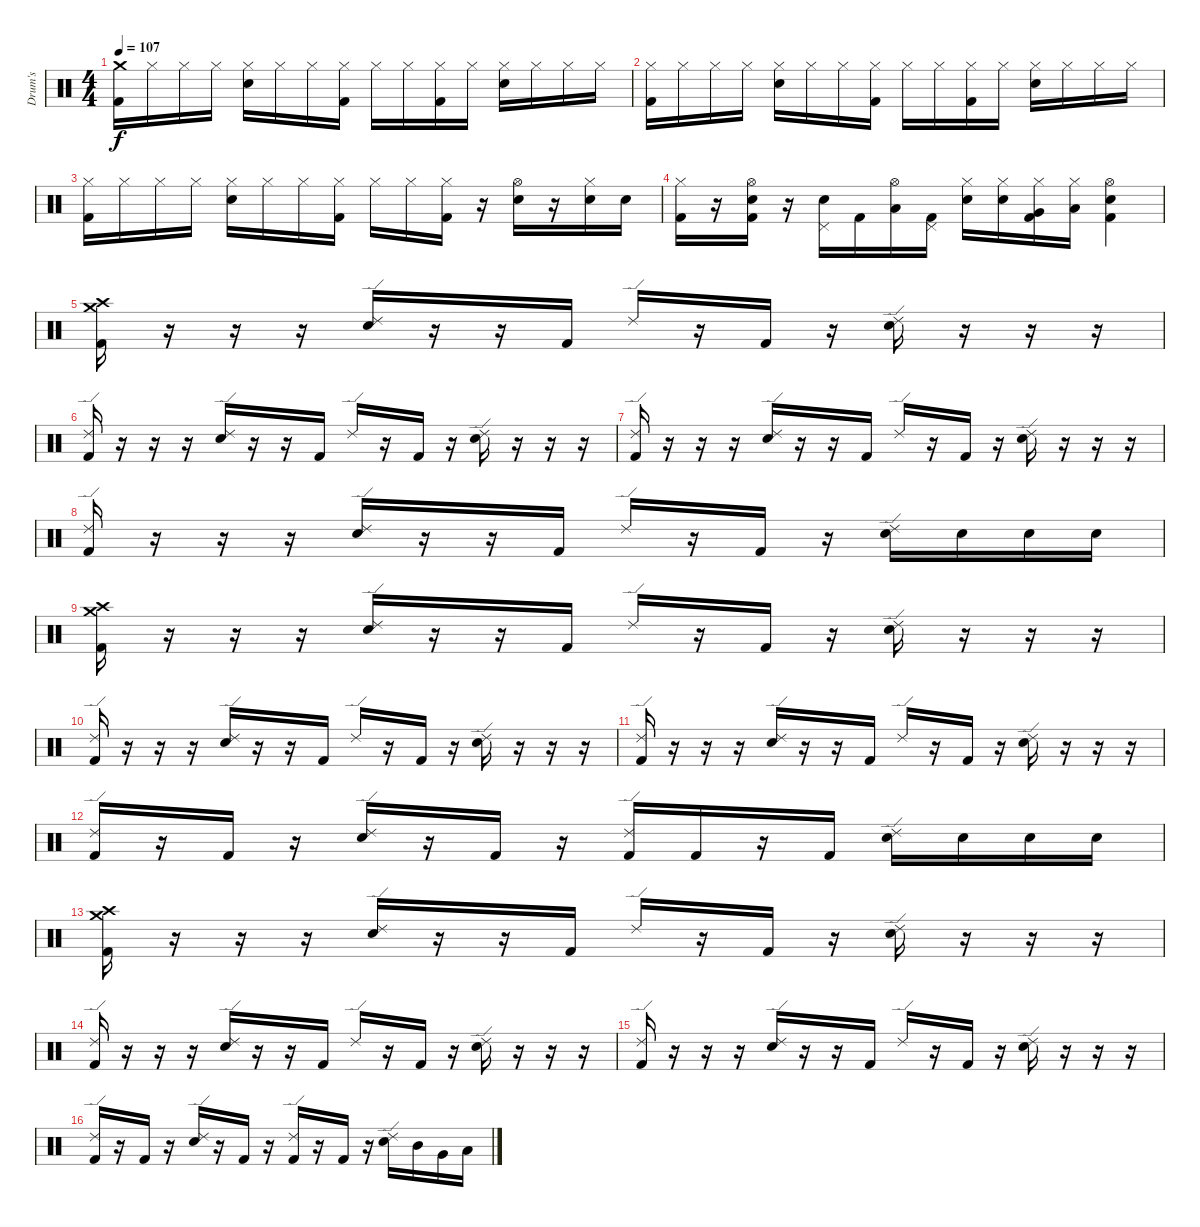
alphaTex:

\track ("Drum's" "Drum's") {instrument percussion}
\staff {score}
\articulation defaults
\ts (4 4)
\tempo 107
\clef neutral
\ks c
("Crash medium (hit)" "Kick (hit) 2").16{dy f} "Hi-Hat (closed)".16 "Hi-Hat (closed)".16 "Hi-Hat (closed)".16 ("Hi-Hat (closed)" "Snare (hit) 2").16 "Hi-Hat (closed)".16 "Hi-Hat (closed)".16 ("Hi-Hat (closed)" "Kick (hit) 2").16 "Hi-Hat (closed)".16 "Hi-Hat (closed)".16 ("Hi-Hat (closed)" "Kick (hit) 2").16 "Hi-Hat (closed)".16 ("Hi-Hat (closed)" "Snare (hit) 2").16 "Hi-Hat (closed)".16 "Hi-Hat (closed)".16 "Hi-Hat (closed)".16 |
("Hi-Hat (closed)" "Kick (hit) 2").16 "Hi-Hat (closed)".16 "Hi-Hat (closed)".16 "Hi-Hat (closed)".16 ("Hi-Hat (closed)" "Snare (hit) 2").16 "Hi-Hat (closed)".16 "Hi-Hat (closed)".16 ("Hi-Hat (closed)" "Kick (hit) 2").16 "Hi-Hat (closed)".16 "Hi-Hat (closed)".16 ("Hi-Hat (closed)" "Kick (hit) 2").16 "Hi-Hat (closed)".16 ("Hi-Hat (closed)" "Snare (hit) 2").16 "Hi-Hat (closed)".16 "Hi-Hat (closed)".16 "Hi-Hat (closed)".16 |
("Hi-Hat (closed)" "Kick (hit) 2").16 "Hi-Hat (closed)".16 "Hi-Hat (closed)".16 "Hi-Hat (closed)".16 ("Hi-Hat (closed)" "Snare (hit) 2").16 "Hi-Hat (closed)".16 "Hi-Hat (closed)".16 ("Hi-Hat (closed)" "Kick (hit) 2").16 "Hi-Hat (closed)".16 "Hi-Hat (closed)".16 ("Hi-Hat (closed)" "Kick (hit) 2").16 r.16 ("Hi-Hat (open)" "Snare (hit) 2").16 r.16 ("Hi-Hat (closed)" "Snare (hit) 2").16 "Snare (hit) 2".16 |
("Hi-Hat (closed)" "Kick (hit) 2").16 r.16 ("Hi-Hat (open)" "Snare (hit) 2" "Kick (hit) 2").16 r.16 ("Pedal Hi-Hat (hit)" "Snare (hit) 2").16 "Kick (hit) 2".16 ("Hi-Hat (open)" "Low Floor Tom (hit)").16 ("Pedal Hi-Hat (hit)" "Kick (hit) 2").16 ("Hi-Hat (closed)" "Snare (hit) 2").16 ("Hi-Hat (closed)" "Snare (hit) 2").16 ("Hi-Hat (closed)" "Very Low Tom (hit)" "Kick (hit) 2").16 ("Hi-Hat (closed)" "Low Floor Tom (hit)").16 ("Hi-Hat (open)" "Snare (hit) 2" "Kick (hit) 2").4 |
("Crash medium (hit)" "Crash high (hit)" "Kick (hit) 2").16 r.16 r.16 r.16 ("Ride (edge) 2" "Snare (hit) 2").16 r.16 r.16 "Kick (hit) 2".16 "Ride (edge) 2".16 r.16 "Kick (hit) 2".16 r.16 ("Ride (edge) 2" "Snare (hit) 2").16 r.16 r.16 r.16 |
("Ride (edge) 2" "Kick (hit) 2").16 r.16 r.16 r.16 ("Ride (edge) 2" "Snare (hit) 2").16 r.16 r.16 "Kick (hit) 2".16 "Ride (edge) 2".16 r.16 "Kick (hit) 2".16 r.16 ("Ride (edge) 2" "Snare (hit) 2").16 r.16 r.16 r.16 |
("Ride (edge) 2" "Kick (hit) 2").16 r.16 r.16 r.16 ("Ride (edge) 2" "Snare (hit) 2").16 r.16 r.16 "Kick (hit) 2".16 "Ride (edge) 2".16 r.16 "Kick (hit) 2".16 r.16 ("Ride (edge) 2" "Snare (hit) 2").16 r.16 r.16 r.16 |
("Ride (edge) 2" "Kick (hit) 2").16 r.16 r.16 r.16 ("Ride (edge) 2" "Snare (hit) 2").16 r.16 r.16 "Kick (hit) 2".16 "Ride (edge) 2".16 r.16 "Kick (hit) 2".16 r.16 ("Ride (edge) 2" "Snare (hit) 2").16 "Snare (hit) 2".16 "Snare (hit) 2".16 "Snare (hit) 2".16 |
("Crash medium (hit)" "Crash high (hit)" "Kick (hit) 2").16 r.16 r.16 r.16 ("Ride (edge) 2" "Snare (hit) 2").16 r.16 r.16 "Kick (hit) 2".16 "Ride (edge) 2".16 r.16 "Kick (hit) 2".16 r.16 ("Ride (edge) 2" "Snare (hit) 2").16 r.16 r.16 r.16 |
("Ride (edge) 2" "Kick (hit) 2").16 r.16 r.16 r.16 ("Ride (edge) 2" "Snare (hit) 2").16 r.16 r.16 "Kick (hit) 2".16 "Ride (edge) 2".16 r.16 "Kick (hit) 2".16 r.16 ("Ride (edge) 2" "Snare (hit) 2").16 r.16 r.16 r.16 |
("Ride (edge) 2" "Kick (hit) 2").16 r.16 r.16 r.16 ("Ride (edge) 2" "Snare (hit) 2").16 r.16 r.16 "Kick (hit) 2".16 "Ride (edge) 2".16 r.16 "Kick (hit) 2".16 r.16 ("Ride (edge) 2" "Snare (hit) 2").16 r.16 r.16 r.16 |
("Ride (edge) 2" "Kick (hit) 2").16 r.16 "Kick (hit) 2".16 r.16 ("Ride (edge) 2" "Snare (hit) 2").16 r.16 "Kick (hit) 2".16 r.16 ("Ride (edge) 2" "Kick (hit) 2").16 "Kick (hit) 2".16 r.16 "Kick (hit) 2".16 ("Ride (edge) 2" "Snare (hit) 2").16 "Snare (hit) 2".16 "Snare (hit) 2".16 "Snare (hit) 2".16 |
("Crash medium (hit)" "Crash high (hit)" "Kick (hit) 2").16 r.16 r.16 r.16 ("Ride (edge) 2" "Snare (hit) 2").16 r.16 r.16 "Kick (hit) 2".16 "Ride (edge) 2".16 r.16 "Kick (hit) 2".16 r.16 ("Ride (edge) 2" "Snare (hit) 2").16 r.16 r.16 r.16 |
("Ride (edge) 2" "Kick (hit) 2").16 r.16 r.16 r.16 ("Ride (edge) 2" "Snare (hit) 2").16 r.16 r.16 "Kick (hit) 2".16 "Ride (edge) 2".16 r.16 "Kick (hit) 2".16 r.16 ("Ride (edge) 2" "Snare (hit) 2").16 r.16 r.16 r.16 |
("Ride (edge) 2" "Kick (hit) 2").16 r.16 r.16 r.16 ("Ride (edge) 2" "Snare (hit) 2").16 r.16 r.16 "Kick (hit) 2".16 "Ride (edge) 2".16 r.16 "Kick (hit) 2".16 r.16 ("Ride (edge) 2" "Snare (hit) 2").16 r.16 r.16 r.16 |
("Ride (edge) 2" "Kick (hit) 2").16 r.16 "Kick (hit) 2".16 r.16 ("Ride (edge) 2" "Snare (hit) 2").16 r.16 "Kick (hit) 2".16 r.16 ("Ride (edge) 2" "Kick (hit) 2").16 r.16 "Kick (hit) 2".16 r.16 ("Ride (edge) 2" "Snare (hit) 2").16 "Mid Tom (hit)".16 "Very Low Tom (hit)".16 "Low Floor Tom (hit)".16
